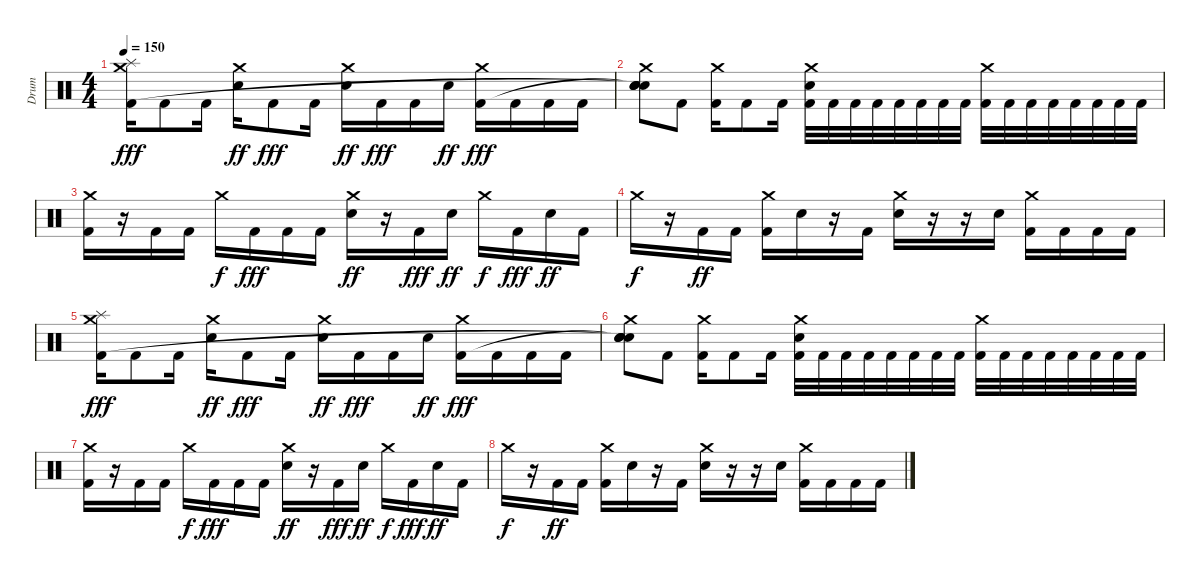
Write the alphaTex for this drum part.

\track ("Drum" "Drum") {instrument percussion}
\staff {score}
\articulation defaults
\ts (4 4)
\tempo 150
\clef neutral
\ks c
("Crash medium (hit)" "Splash (hit)" "Kick (hit) 2").16{dy fff} "Kick (hit) 2".8 "Kick (hit) 2".16 ("Crash medium (hit)" "Electric Snare (hit)").16{dy ff} "Kick (hit) 2".8{dy fff} "Kick (hit) 2".16 ("Crash medium (hit)" "Electric Snare (hit)").16{dy ff} "Kick (hit) 2".16{dy fff} "Kick (hit) 2".16 "Electric Snare (hit)".16{dy ff} ("Crash medium (hit)" "Kick (hit) 2").16{dy fff} "Kick (hit) 2".16 "Kick (hit) 2".16 "Kick (hit) 2".16 |
("Crash medium (hit)" "Snare (hit)"{t} "Snare (hit)"{t} "Snare (hit)" "Snare (hit)").8 "Kick (hit) 2".8 ("Crash medium (hit)" "Kick (hit) 2").16 "Kick (hit) 2".8 "Kick (hit) 2".16 ("Crash medium (hit)" "Electric Snare (hit)" "Kick (hit) 2").32 "Kick (hit) 2".32 "Kick (hit) 2".32 "Kick (hit) 2".32 "Kick (hit) 2".32 "Kick (hit) 2".32 "Kick (hit) 2".32 "Kick (hit) 2".32 ("Crash medium (hit)" "Kick (hit) 2").32 "Kick (hit) 2".32 "Kick (hit) 2".32 "Kick (hit) 2".32 "Kick (hit) 2".32 "Kick (hit) 2".32 "Kick (hit) 2".32 "Kick (hit) 2".32 |
("Crash medium (hit)" "Kick (hit) 2").16 r.16 "Kick (hit) 2".16 "Kick (hit) 2".16 "Crash medium (hit)".16{dy f} "Kick (hit) 2".16{dy fff} "Kick (hit) 2".16 "Kick (hit) 2".16 ("Crash medium (hit)" "Electric Snare (hit)").16{dy ff} r.16 "Kick (hit) 2".16{dy fff} "Electric Snare (hit)".16{dy ff} "Crash medium (hit)".16{dy f} "Kick (hit) 2".16{dy fff} "Electric Snare (hit)".16{dy ff} "Kick (hit) 2".16 |
"Crash medium (hit)".16{dy f} r.16 "Kick (hit) 2".16{dy ff} "Kick (hit) 2".16 ("Crash medium (hit)" "Kick (hit) 2").16 "Electric Snare (hit)".16 r.16 "Kick (hit) 2".16 ("Crash medium (hit)" "Electric Snare (hit)").16 r.16 r.16 "Electric Snare (hit)".16 ("Crash medium (hit)" "Kick (hit) 2").16 "Kick (hit) 2".16 "Kick (hit) 2".16 "Kick (hit) 2".16 |
("Crash medium (hit)" "Splash (hit)" "Kick (hit) 2").16{dy fff} "Kick (hit) 2".8 "Kick (hit) 2".16 ("Crash medium (hit)" "Electric Snare (hit)").16{dy ff} "Kick (hit) 2".8{dy fff} "Kick (hit) 2".16 ("Crash medium (hit)" "Electric Snare (hit)").16{dy ff} "Kick (hit) 2".16{dy fff} "Kick (hit) 2".16 "Electric Snare (hit)".16{dy ff} ("Crash medium (hit)" "Kick (hit) 2").16{dy fff} "Kick (hit) 2".16 "Kick (hit) 2".16 "Kick (hit) 2".16 |
("Crash medium (hit)" "Snare (hit)"{t} "Snare (hit)"{t} "Snare (hit)" "Snare (hit)").8 "Kick (hit) 2".8 ("Crash medium (hit)" "Kick (hit) 2").16 "Kick (hit) 2".8 "Kick (hit) 2".16 ("Crash medium (hit)" "Electric Snare (hit)" "Kick (hit) 2").32 "Kick (hit) 2".32 "Kick (hit) 2".32 "Kick (hit) 2".32 "Kick (hit) 2".32 "Kick (hit) 2".32 "Kick (hit) 2".32 "Kick (hit) 2".32 ("Crash medium (hit)" "Kick (hit) 2").32 "Kick (hit) 2".32 "Kick (hit) 2".32 "Kick (hit) 2".32 "Kick (hit) 2".32 "Kick (hit) 2".32 "Kick (hit) 2".32 "Kick (hit) 2".32 |
("Crash medium (hit)" "Kick (hit) 2").16 r.16 "Kick (hit) 2".16 "Kick (hit) 2".16 "Crash medium (hit)".16{dy f} "Kick (hit) 2".16{dy fff} "Kick (hit) 2".16 "Kick (hit) 2".16 ("Crash medium (hit)" "Electric Snare (hit)").16{dy ff} r.16 "Kick (hit) 2".16{dy fff} "Electric Snare (hit)".16{dy ff} "Crash medium (hit)".16{dy f} "Kick (hit) 2".16{dy fff} "Electric Snare (hit)".16{dy ff} "Kick (hit) 2".16 |
"Crash medium (hit)".16{dy f} r.16 "Kick (hit) 2".16{dy ff} "Kick (hit) 2".16 ("Crash medium (hit)" "Kick (hit) 2").16 "Electric Snare (hit)".16 r.16 "Kick (hit) 2".16 ("Crash medium (hit)" "Electric Snare (hit)").16 r.16 r.16 "Electric Snare (hit)".16 ("Crash medium (hit)" "Kick (hit) 2").16 "Kick (hit) 2".16 "Kick (hit) 2".16 "Kick (hit) 2".16
